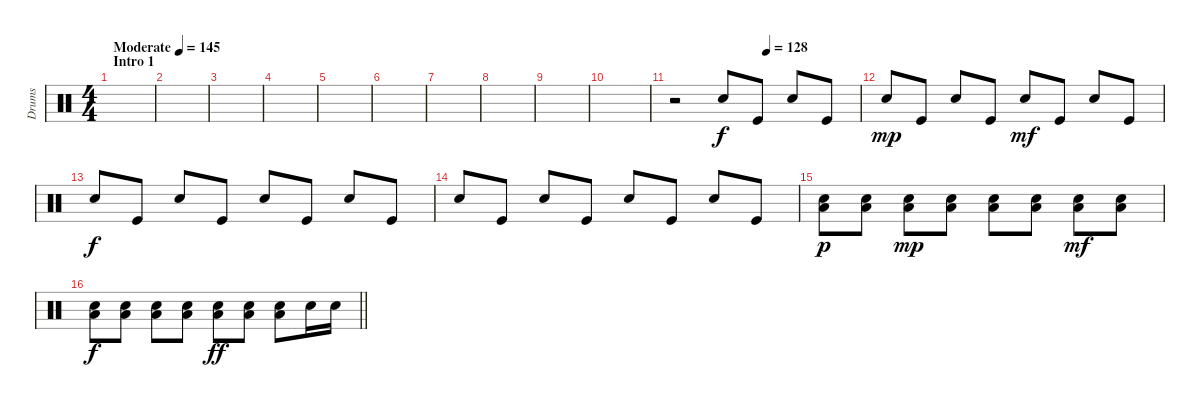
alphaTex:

\track ("Drums" "Drums") {instrument percussion}
\staff {score}
\articulation defaults
\ts (4 4)
\section ("" "Intro 1")
\tempo (145 "Moderate")
\tempo 146
\tempo (145 "Moderate")
\clef neutral
\ks c
|
|
|
|
|
|
|
|
|
|
\tempo (128 0.5)
r.2 "Electric Snare (hit)".8 "Kick (hit)".8 "Electric Snare (hit)".8 "Kick (hit)".8 |
"Electric Snare (hit)".8{dy mp} "Kick (hit)".8 "Electric Snare (hit)".8 "Kick (hit)".8 "Electric Snare (hit)".8{dy mf} "Kick (hit)".8 "Electric Snare (hit)".8 "Kick (hit)".8 |
"Electric Snare (hit)".8{dy f} "Kick (hit)".8 "Electric Snare (hit)".8 "Kick (hit)".8 "Electric Snare (hit)".8 "Kick (hit)".8 "Electric Snare (hit)".8 "Kick (hit)".8 |
"Electric Snare (hit)".8 "Kick (hit)".8 "Electric Snare (hit)".8 "Kick (hit)".8 "Electric Snare (hit)".8 "Kick (hit)".8 "Electric Snare (hit)".8 "Kick (hit)".8 |
("Electric Snare (hit)" "Low Tom (hit)").8{dy p} ("Electric Snare (hit)" "Low Tom (hit)").8 ("Electric Snare (hit)" "Low Tom (hit)").8{dy mp} ("Electric Snare (hit)" "Low Tom (hit)").8 ("Electric Snare (hit)" "Low Tom (hit)").8 ("Electric Snare (hit)" "Low Tom (hit)").8 ("Electric Snare (hit)" "Low Tom (hit)").8{dy mf} ("Electric Snare (hit)" "Low Tom (hit)").8 |
\barLineRight lightlight
("Electric Snare (hit)" "Low Tom (hit)").8{dy f} ("Electric Snare (hit)" "Low Tom (hit)").8 ("Electric Snare (hit)" "Low Tom (hit)").8 ("Electric Snare (hit)" "Low Tom (hit)").8 ("Electric Snare (hit)" "Low Tom (hit)").8{dy ff} ("Electric Snare (hit)" "Low Tom (hit)").8 ("Electric Snare (hit)" "Low Tom (hit)").8 "Electric Snare (hit)".16 "Electric Snare (hit)".16
